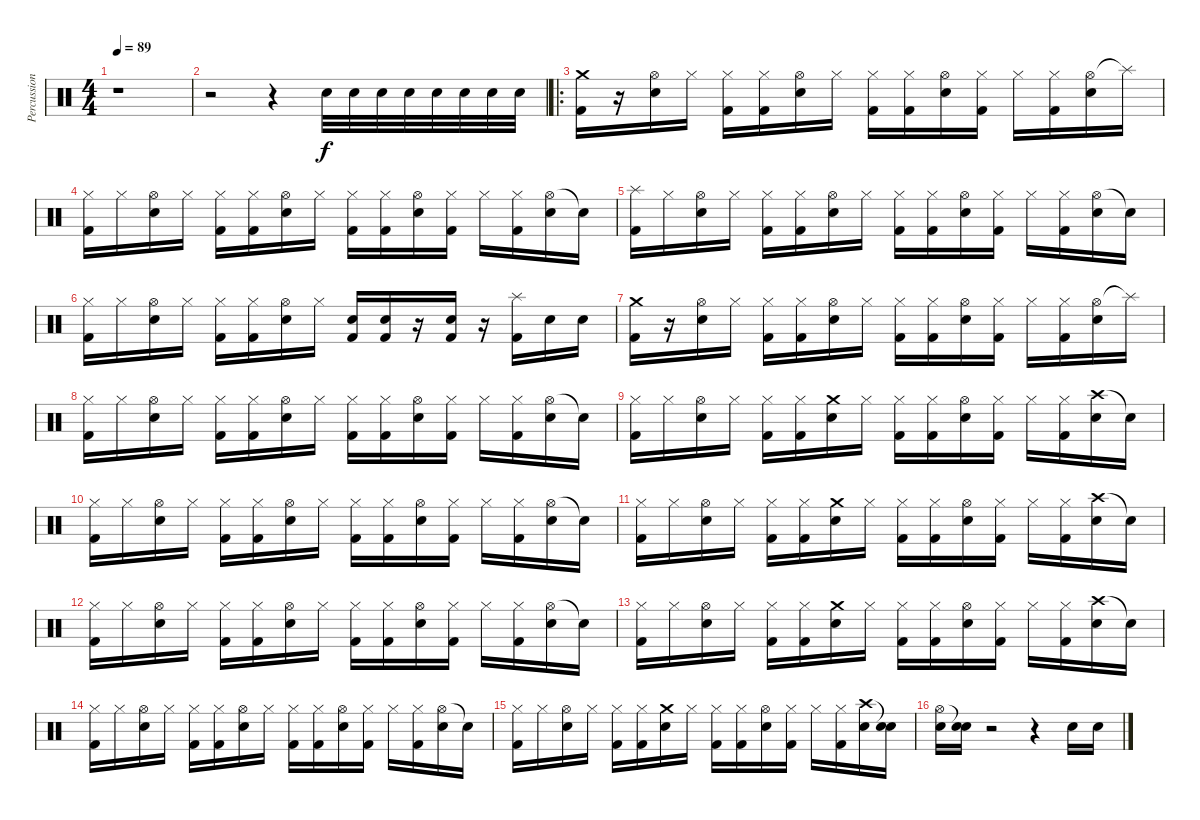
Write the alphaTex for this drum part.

\track ("Percussion" "Percussion") {instrument percussion}
\staff {score}
\articulation defaults
\ts (4 4)
\tempo 89
\clef neutral
\ks c
r.1{dy f} |
r.2 r.4 "Electric Snare (hit)".32 "Electric Snare (hit)".32 "Electric Snare (hit)".32 "Electric Snare (hit)".32 "Electric Snare (hit)".32 "Electric Snare (hit)".32 "Electric Snare (hit)".32 "Electric Snare (hit)".32 |
\ro
("Crash medium (hit)" "Kick (hit) 2").16 r.16 ("Hi-Hat (open)" "Electric Snare (hit)").16 "Hi-Hat (closed)".16 ("Hi-Hat (closed)" "Kick (hit) 2").16 ("Hi-Hat (closed)" "Kick (hit) 2").16 ("Hi-Hat (open)" "Electric Snare (hit)").16 "Hi-Hat (closed)".16 ("Hi-Hat (closed)" "Kick (hit) 2").16 ("Hi-Hat (closed)" "Kick (hit) 2").16 ("Hi-Hat (open)" "Electric Snare (hit)").16 ("Hi-Hat (closed)" "Kick (hit) 2").16 "Hi-Hat (closed)".16 ("Hi-Hat (closed)" "Kick (hit) 2").16 ("Hi-Hat (open)" "Electric Snare (hit)").16 "Splash (hit)"{t}.16 |
("Hi-Hat (closed)" "Kick (hit) 2").16 "Hi-Hat (closed)".16 ("Hi-Hat (open)" "Electric Snare (hit)").16 "Hi-Hat (closed)".16 ("Hi-Hat (closed)" "Kick (hit) 2").16 ("Hi-Hat (closed)" "Kick (hit) 2").16 ("Hi-Hat (open)" "Electric Snare (hit)").16 "Hi-Hat (closed)".16 ("Hi-Hat (closed)" "Kick (hit) 2").16 ("Hi-Hat (closed)" "Kick (hit) 2").16 ("Hi-Hat (open)" "Electric Snare (hit)").16 ("Hi-Hat (closed)" "Kick (hit) 2").16 "Hi-Hat (closed)".16 ("Hi-Hat (closed)" "Kick (hit) 2").16 ("Hi-Hat (open)" "Electric Snare (hit)").16 "Snare (hit)"{t}.16 |
("Splash (hit)" "Kick (hit) 2").16 "Hi-Hat (closed)".16 ("Hi-Hat (open)" "Electric Snare (hit)").16 "Hi-Hat (closed)".16 ("Hi-Hat (closed)" "Kick (hit) 2").16 ("Hi-Hat (closed)" "Kick (hit) 2").16 ("Hi-Hat (open)" "Electric Snare (hit)").16 "Hi-Hat (closed)".16 ("Hi-Hat (closed)" "Kick (hit) 2").16 ("Hi-Hat (closed)" "Kick (hit) 2").16 ("Hi-Hat (open)" "Electric Snare (hit)").16 ("Hi-Hat (closed)" "Kick (hit) 2").16 "Hi-Hat (closed)".16 ("Hi-Hat (closed)" "Kick (hit) 2").16 ("Hi-Hat (open)" "Electric Snare (hit)").16 "Snare (hit)"{t}.16 |
("Hi-Hat (closed)" "Kick (hit) 2").16 "Hi-Hat (closed)".16 ("Hi-Hat (open)" "Electric Snare (hit)").16 "Hi-Hat (closed)".16 ("Hi-Hat (closed)" "Kick (hit) 2").16 ("Hi-Hat (closed)" "Kick (hit) 2").16 ("Hi-Hat (open)" "Electric Snare (hit)").16 "Hi-Hat (closed)".16 ("Electric Snare (hit)" "Kick (hit) 2").16 ("Electric Snare (hit)" "Kick (hit) 2").16 r.16 ("Electric Snare (hit)" "Kick (hit) 2").16 r.16 ("Splash (hit)" "Kick (hit) 2").16 "Electric Snare (hit)".16 "Electric Snare (hit)".16 |
("Crash medium (hit)" "Kick (hit) 2").16 r.16 ("Hi-Hat (open)" "Electric Snare (hit)").16 "Hi-Hat (closed)".16 ("Hi-Hat (closed)" "Kick (hit) 2").16 ("Hi-Hat (closed)" "Kick (hit) 2").16 ("Hi-Hat (open)" "Electric Snare (hit)").16 "Hi-Hat (closed)".16 ("Hi-Hat (closed)" "Kick (hit) 2").16 ("Hi-Hat (closed)" "Kick (hit) 2").16 ("Hi-Hat (open)" "Electric Snare (hit)").16 ("Hi-Hat (closed)" "Kick (hit) 2").16 "Hi-Hat (closed)".16 ("Hi-Hat (closed)" "Kick (hit) 2").16 ("Hi-Hat (open)" "Electric Snare (hit)").16 "Splash (hit)"{t}.16 |
("Hi-Hat (closed)" "Kick (hit) 2").16 "Hi-Hat (closed)".16 ("Hi-Hat (open)" "Electric Snare (hit)").16 "Hi-Hat (closed)".16 ("Hi-Hat (closed)" "Kick (hit) 2").16 ("Hi-Hat (closed)" "Kick (hit) 2").16 ("Hi-Hat (open)" "Electric Snare (hit)").16 "Hi-Hat (closed)".16 ("Hi-Hat (closed)" "Kick (hit) 2").16 ("Hi-Hat (closed)" "Kick (hit) 2").16 ("Hi-Hat (open)" "Electric Snare (hit)").16 ("Hi-Hat (closed)" "Kick (hit) 2").16 "Hi-Hat (closed)".16 ("Hi-Hat (closed)" "Kick (hit) 2").16 ("Hi-Hat (open)" "Electric Snare (hit)").16 "Snare (hit)"{t}.16 |
("Hi-Hat (closed)" "Kick (hit) 2").16 "Hi-Hat (closed)".16 ("Hi-Hat (open)" "Electric Snare (hit)").16 "Hi-Hat (closed)".16 ("Hi-Hat (closed)" "Kick (hit) 2").16 ("Hi-Hat (closed)" "Kick (hit) 2").16 ("Crash medium (hit)" "Electric Snare (hit)").16 "Hi-Hat (closed)".16 ("Hi-Hat (closed)" "Kick (hit) 2").16 ("Hi-Hat (closed)" "Kick (hit) 2").16 ("Hi-Hat (open)" "Electric Snare (hit)").16 ("Hi-Hat (closed)" "Kick (hit) 2").16 "Hi-Hat (closed)".16 ("Hi-Hat (closed)" "Kick (hit) 2").16 ("Crash high (hit)" "Electric Snare (hit)").16 "Snare (hit)"{t}.16 |
("Hi-Hat (closed)" "Kick (hit) 2").16 "Hi-Hat (closed)".16 ("Hi-Hat (open)" "Electric Snare (hit)").16 "Hi-Hat (closed)".16 ("Hi-Hat (closed)" "Kick (hit) 2").16 ("Hi-Hat (closed)" "Kick (hit) 2").16 ("Hi-Hat (open)" "Electric Snare (hit)").16 "Hi-Hat (closed)".16 ("Hi-Hat (closed)" "Kick (hit) 2").16 ("Hi-Hat (closed)" "Kick (hit) 2").16 ("Hi-Hat (open)" "Electric Snare (hit)").16 ("Hi-Hat (closed)" "Kick (hit) 2").16 "Hi-Hat (closed)".16 ("Hi-Hat (closed)" "Kick (hit) 2").16 ("Hi-Hat (open)" "Electric Snare (hit)").16 "Snare (hit)"{t}.16 |
("Hi-Hat (closed)" "Kick (hit) 2").16 "Hi-Hat (closed)".16 ("Hi-Hat (open)" "Electric Snare (hit)").16 "Hi-Hat (closed)".16 ("Hi-Hat (closed)" "Kick (hit) 2").16 ("Hi-Hat (closed)" "Kick (hit) 2").16 ("Crash medium (hit)" "Electric Snare (hit)").16 "Hi-Hat (closed)".16 ("Hi-Hat (closed)" "Kick (hit) 2").16 ("Hi-Hat (closed)" "Kick (hit) 2").16 ("Hi-Hat (open)" "Electric Snare (hit)").16 ("Hi-Hat (closed)" "Kick (hit) 2").16 "Hi-Hat (closed)".16 ("Hi-Hat (closed)" "Kick (hit) 2").16 ("Crash high (hit)" "Electric Snare (hit)").16 "Snare (hit)"{t}.16 |
("Hi-Hat (closed)" "Kick (hit) 2").16 "Hi-Hat (closed)".16 ("Hi-Hat (open)" "Electric Snare (hit)").16 "Hi-Hat (closed)".16 ("Hi-Hat (closed)" "Kick (hit) 2").16 ("Hi-Hat (closed)" "Kick (hit) 2").16 ("Hi-Hat (open)" "Electric Snare (hit)").16 "Hi-Hat (closed)".16 ("Hi-Hat (closed)" "Kick (hit) 2").16 ("Hi-Hat (closed)" "Kick (hit) 2").16 ("Hi-Hat (open)" "Electric Snare (hit)").16 ("Hi-Hat (closed)" "Kick (hit) 2").16 "Hi-Hat (closed)".16 ("Hi-Hat (closed)" "Kick (hit) 2").16 ("Hi-Hat (open)" "Electric Snare (hit)").16 "Snare (hit)"{t}.16 |
("Hi-Hat (closed)" "Kick (hit) 2").16 "Hi-Hat (closed)".16 ("Hi-Hat (open)" "Electric Snare (hit)").16 "Hi-Hat (closed)".16 ("Hi-Hat (closed)" "Kick (hit) 2").16 ("Hi-Hat (closed)" "Kick (hit) 2").16 ("Crash medium (hit)" "Electric Snare (hit)").16 "Hi-Hat (closed)".16 ("Hi-Hat (closed)" "Kick (hit) 2").16 ("Hi-Hat (closed)" "Kick (hit) 2").16 ("Hi-Hat (open)" "Electric Snare (hit)").16 ("Hi-Hat (closed)" "Kick (hit) 2").16 "Hi-Hat (closed)".16 ("Hi-Hat (closed)" "Kick (hit) 2").16 ("Crash high (hit)" "Electric Snare (hit)").16 "Snare (hit)"{t}.16 |
("Hi-Hat (closed)" "Kick (hit) 2").16 "Hi-Hat (closed)".16 ("Hi-Hat (open)" "Electric Snare (hit)").16 "Hi-Hat (closed)".16 ("Hi-Hat (closed)" "Kick (hit) 2").16 ("Hi-Hat (closed)" "Kick (hit) 2").16 ("Hi-Hat (open)" "Electric Snare (hit)").16 "Hi-Hat (closed)".16 ("Hi-Hat (closed)" "Kick (hit) 2").16 ("Hi-Hat (closed)" "Kick (hit) 2").16 ("Hi-Hat (open)" "Electric Snare (hit)").16 ("Hi-Hat (closed)" "Kick (hit) 2").16 "Hi-Hat (closed)".16 ("Hi-Hat (closed)" "Kick (hit) 2").16 ("Hi-Hat (open)" "Electric Snare (hit)").16 "Snare (hit)"{t}.16 |
("Hi-Hat (closed)" "Kick (hit) 2").16 "Hi-Hat (closed)".16 ("Hi-Hat (open)" "Electric Snare (hit)").16 "Hi-Hat (closed)".16 ("Hi-Hat (closed)" "Kick (hit) 2").16 ("Hi-Hat (closed)" "Kick (hit) 2").16 ("Crash medium (hit)" "Electric Snare (hit)").16 "Hi-Hat (closed)".16 ("Hi-Hat (closed)" "Kick (hit) 2").16 ("Hi-Hat (closed)" "Kick (hit) 2").16 ("Hi-Hat (open)" "Electric Snare (hit)").16 ("Hi-Hat (closed)" "Kick (hit) 2").16 "Hi-Hat (closed)".16 ("Hi-Hat (closed)" "Kick (hit) 2").16 ("Crash high (hit)" "Electric Snare (hit)").16 ("Snare (hit)"{t} "Electric Snare (hit)").16 |
("Hi-Hat (open)" "Electric Snare (hit)").16 ("Snare (hit)"{t} "Electric Snare (hit)").16 r.2 r.4 "Electric Snare (hit)".16 "Electric Snare (hit)".16
